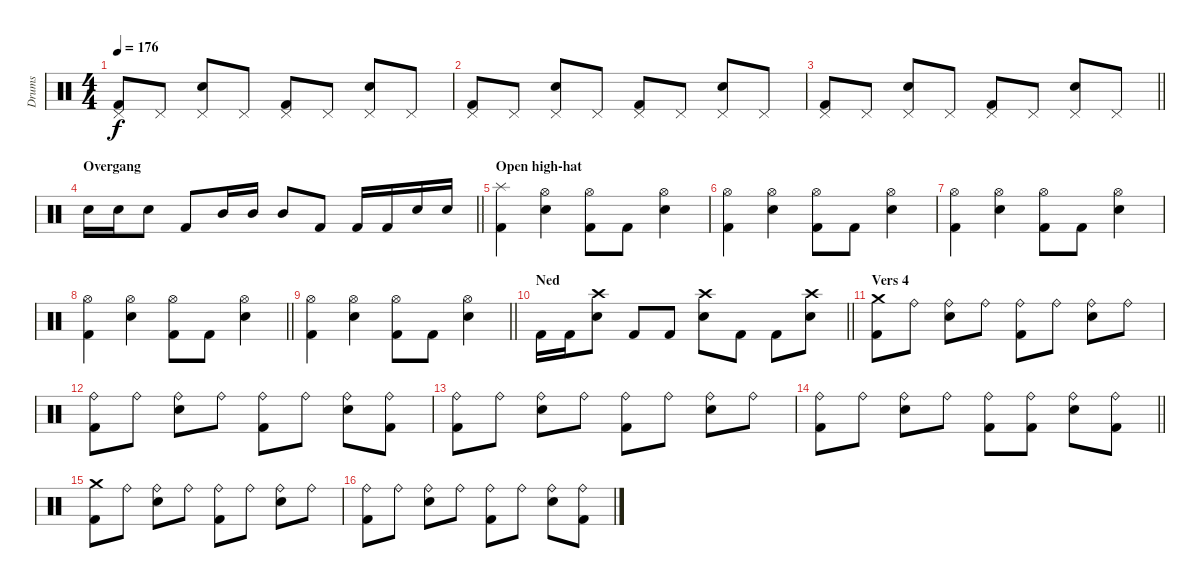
\track ("Drums" "Drums") {instrument percussion}
\staff {score}
\articulation defaults
\ts (4 4)
\tempo 176
\clef neutral
\ks c
("Pedal Hi-Hat (hit)" "Kick (hit) 2").8{dy f} "Pedal Hi-Hat (hit)".8 ("Pedal Hi-Hat (hit)" "Snare (hit) 2").8 "Pedal Hi-Hat (hit)".8 ("Pedal Hi-Hat (hit)" "Kick (hit) 2").8 "Pedal Hi-Hat (hit)".8 ("Pedal Hi-Hat (hit)" "Snare (hit) 2").8 "Pedal Hi-Hat (hit)".8 |
("Pedal Hi-Hat (hit)" "Kick (hit) 2").8 "Pedal Hi-Hat (hit)".8 ("Pedal Hi-Hat (hit)" "Snare (hit) 2").8 "Pedal Hi-Hat (hit)".8 ("Pedal Hi-Hat (hit)" "Kick (hit) 2").8 "Pedal Hi-Hat (hit)".8 ("Pedal Hi-Hat (hit)" "Snare (hit) 2").8 "Pedal Hi-Hat (hit)".8 |
\barLineRight lightlight
("Pedal Hi-Hat (hit)" "Kick (hit) 2").8 "Pedal Hi-Hat (hit)".8 ("Pedal Hi-Hat (hit)" "Snare (hit) 2").8 "Pedal Hi-Hat (hit)".8 ("Pedal Hi-Hat (hit)" "Kick (hit) 2").8 "Pedal Hi-Hat (hit)".8 ("Pedal Hi-Hat (hit)" "Snare (hit) 2").8 "Pedal Hi-Hat (hit)".8 |
\section ("" "Overgang")
\barLineRight lightlight "Snare (hit) 2".16 "Snare (hit) 2".16 "Snare (hit) 2".8 "Kick (hit) 2".8 "Mid Tom (hit)".16 "Mid Tom (hit)".16 "Mid Tom (hit)".8 "Kick (hit) 2".8 "Kick (hit) 2".16 "Kick (hit) 2".16 "Snare (hit) 2".16 "Snare (hit) 2".16
|
\section ("" "Open high-hat")
("Splash (hit)" "Kick (hit) 2").4 ("Hi-Hat (open)" "Snare (hit) 2").4 ("Hi-Hat (open)" "Kick (hit) 2").8 "Kick (hit) 2".8 ("Hi-Hat (open)" "Snare (hit) 2").4 |
("Hi-Hat (open)" "Kick (hit) 2").4 ("Hi-Hat (open)" "Snare (hit) 2").4 ("Hi-Hat (open)" "Kick (hit) 2").8 "Kick (hit) 2".8 ("Hi-Hat (open)" "Snare (hit) 2").4 |
("Hi-Hat (open)" "Kick (hit) 2").4 ("Hi-Hat (open)" "Snare (hit) 2").4 ("Hi-Hat (open)" "Kick (hit) 2").8 "Kick (hit) 2".8 ("Hi-Hat (open)" "Snare (hit) 2").4 |
\barLineRight lightlight
("Hi-Hat (open)" "Kick (hit) 2").4 ("Hi-Hat (open)" "Snare (hit) 2").4 ("Hi-Hat (open)" "Kick (hit) 2").8 "Kick (hit) 2".8 ("Hi-Hat (open)" "Snare (hit) 2").4 |
\barLineRight lightlight
("Hi-Hat (open)" "Kick (hit) 2").4 ("Hi-Hat (open)" "Snare (hit) 2").4 ("Hi-Hat (open)" "Kick (hit) 2").8 "Kick (hit) 2".8 ("Hi-Hat (open)" "Snare (hit) 2").4 |
\section ("" "Ned")
\barLineRight lightlight "Kick (hit) 2".16 "Kick (hit) 2".16
("Crash high (hit)" "Snare (hit) 2").8 "Kick (hit) 2".8 "Kick (hit) 2".8 ("Crash high (hit)" "Snare (hit) 2").8 "Kick (hit) 2".8 "Kick (hit) 2".8 ("Crash high (hit)" "Snare (hit) 2").8 |
\section ("" "Vers 4")
("Crash medium (hit)" "Kick (hit) 2").8 "Ride (bell)".8 ("Ride (bell)" "Snare (hit) 2").8 "Ride (bell)".8 ("Ride (bell)" "Kick (hit) 2").8 "Ride (bell)".8 ("Ride (bell)" "Snare (hit) 2").8 "Ride (bell)".8 |
("Ride (bell)" "Kick (hit) 2").8 "Ride (bell)".8 ("Ride (bell)" "Snare (hit) 2").8 "Ride (bell)".8 ("Ride (bell)" "Kick (hit) 2").8 "Ride (bell)".8 ("Ride (bell)" "Snare (hit) 2").8 ("Ride (bell)" "Kick (hit) 2").8 |
("Ride (bell)" "Kick (hit) 2").8 "Ride (bell)".8 ("Ride (bell)" "Snare (hit) 2").8 "Ride (bell)".8 ("Ride (bell)" "Kick (hit) 2").8 "Ride (bell)".8 ("Ride (bell)" "Snare (hit) 2").8 "Ride (bell)".8 |
\barLineRight lightlight
("Ride (bell)" "Kick (hit) 2").8 "Ride (bell)".8 ("Ride (bell)" "Snare (hit) 2").8 "Ride (bell)".8 ("Ride (bell)" "Kick (hit) 2").8 ("Ride (bell)" "Kick (hit) 2").8 ("Ride (bell)" "Snare (hit) 2").8 ("Ride (bell)" "Kick (hit) 2").8 |
("Crash medium (hit)" "Kick (hit) 2").8 "Ride (bell)".8 ("Ride (bell)" "Snare (hit) 2").8 "Ride (bell)".8 ("Ride (bell)" "Kick (hit) 2").8 "Ride (bell)".8 ("Ride (bell)" "Snare (hit) 2").8 "Ride (bell)".8 |
("Ride (bell)" "Kick (hit) 2").8 "Ride (bell)".8 ("Ride (bell)" "Snare (hit) 2").8 "Ride (bell)".8 ("Ride (bell)" "Kick (hit) 2").8 "Ride (bell)".8 ("Ride (bell)" "Snare (hit) 2").8 ("Ride (bell)" "Kick (hit) 2").8
